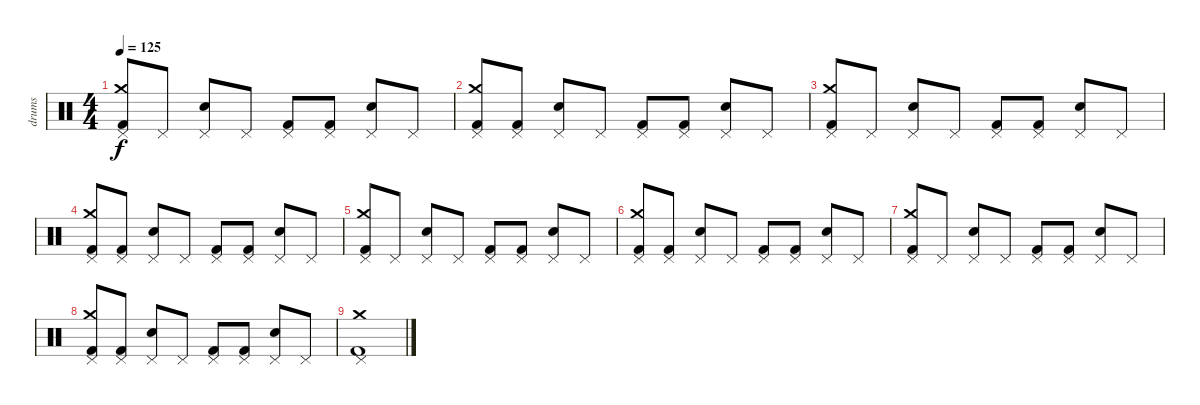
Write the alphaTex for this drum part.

\track ("drums" "drums") {instrument percussion}
\staff {score}
\articulation defaults
\ts (4 4)
\tempo 125
\clef neutral
\ks c
("Pedal Hi-Hat (hit)" "Crash medium (hit)" "Kick (hit) 2").8{dy f} "Pedal Hi-Hat (hit)".8 ("Pedal Hi-Hat (hit)" "Snare (hit) 2").8 "Pedal Hi-Hat (hit)".8 ("Pedal Hi-Hat (hit)" "Kick (hit) 2").8 ("Pedal Hi-Hat (hit)" "Kick (hit) 2").8 ("Pedal Hi-Hat (hit)" "Snare (hit) 2").8 "Pedal Hi-Hat (hit)".8 |
("Pedal Hi-Hat (hit)" "Crash medium (hit)" "Kick (hit) 2").8 ("Pedal Hi-Hat (hit)" "Kick (hit) 2").8 ("Pedal Hi-Hat (hit)" "Snare (hit) 2").8 "Pedal Hi-Hat (hit)".8 ("Pedal Hi-Hat (hit)" "Kick (hit) 2").8 ("Pedal Hi-Hat (hit)" "Kick (hit) 2").8 ("Pedal Hi-Hat (hit)" "Snare (hit) 2").8 "Pedal Hi-Hat (hit)".8 |
("Pedal Hi-Hat (hit)" "Crash medium (hit)" "Kick (hit) 2").8 "Pedal Hi-Hat (hit)".8 ("Pedal Hi-Hat (hit)" "Snare (hit) 2").8 "Pedal Hi-Hat (hit)".8 ("Pedal Hi-Hat (hit)" "Kick (hit) 2").8 ("Pedal Hi-Hat (hit)" "Kick (hit) 2").8 ("Pedal Hi-Hat (hit)" "Snare (hit) 2").8 "Pedal Hi-Hat (hit)".8 |
("Pedal Hi-Hat (hit)" "Crash medium (hit)" "Kick (hit) 2").8 ("Pedal Hi-Hat (hit)" "Kick (hit) 2").8 ("Pedal Hi-Hat (hit)" "Snare (hit) 2").8 "Pedal Hi-Hat (hit)".8 ("Pedal Hi-Hat (hit)" "Kick (hit) 2").8 ("Pedal Hi-Hat (hit)" "Kick (hit) 2").8 ("Pedal Hi-Hat (hit)" "Snare (hit) 2").8 "Pedal Hi-Hat (hit)".8 |
("Pedal Hi-Hat (hit)" "Crash medium (hit)" "Kick (hit) 2").8 "Pedal Hi-Hat (hit)".8 ("Pedal Hi-Hat (hit)" "Snare (hit) 2").8 "Pedal Hi-Hat (hit)".8 ("Pedal Hi-Hat (hit)" "Kick (hit) 2").8 ("Pedal Hi-Hat (hit)" "Kick (hit) 2").8 ("Pedal Hi-Hat (hit)" "Snare (hit) 2").8 "Pedal Hi-Hat (hit)".8 |
("Pedal Hi-Hat (hit)" "Crash medium (hit)" "Kick (hit) 2").8 ("Pedal Hi-Hat (hit)" "Kick (hit) 2").8 ("Pedal Hi-Hat (hit)" "Snare (hit) 2").8 "Pedal Hi-Hat (hit)".8 ("Pedal Hi-Hat (hit)" "Kick (hit) 2").8 ("Pedal Hi-Hat (hit)" "Kick (hit) 2").8 ("Pedal Hi-Hat (hit)" "Snare (hit) 2").8 "Pedal Hi-Hat (hit)".8 |
("Pedal Hi-Hat (hit)" "Crash medium (hit)" "Kick (hit) 2").8 "Pedal Hi-Hat (hit)".8 ("Pedal Hi-Hat (hit)" "Snare (hit) 2").8 "Pedal Hi-Hat (hit)".8 ("Pedal Hi-Hat (hit)" "Kick (hit) 2").8 ("Pedal Hi-Hat (hit)" "Kick (hit) 2").8 ("Pedal Hi-Hat (hit)" "Snare (hit) 2").8 "Pedal Hi-Hat (hit)".8 |
("Pedal Hi-Hat (hit)" "Crash medium (hit)" "Kick (hit) 2").8 ("Pedal Hi-Hat (hit)" "Kick (hit) 2").8 ("Pedal Hi-Hat (hit)" "Snare (hit) 2").8 "Pedal Hi-Hat (hit)".8 ("Pedal Hi-Hat (hit)" "Kick (hit) 2").8 ("Pedal Hi-Hat (hit)" "Kick (hit) 2").8 ("Pedal Hi-Hat (hit)" "Snare (hit) 2").8 "Pedal Hi-Hat (hit)".8 |
("Pedal Hi-Hat (hit)" "Crash medium (hit)" "Kick (hit) 2").1
